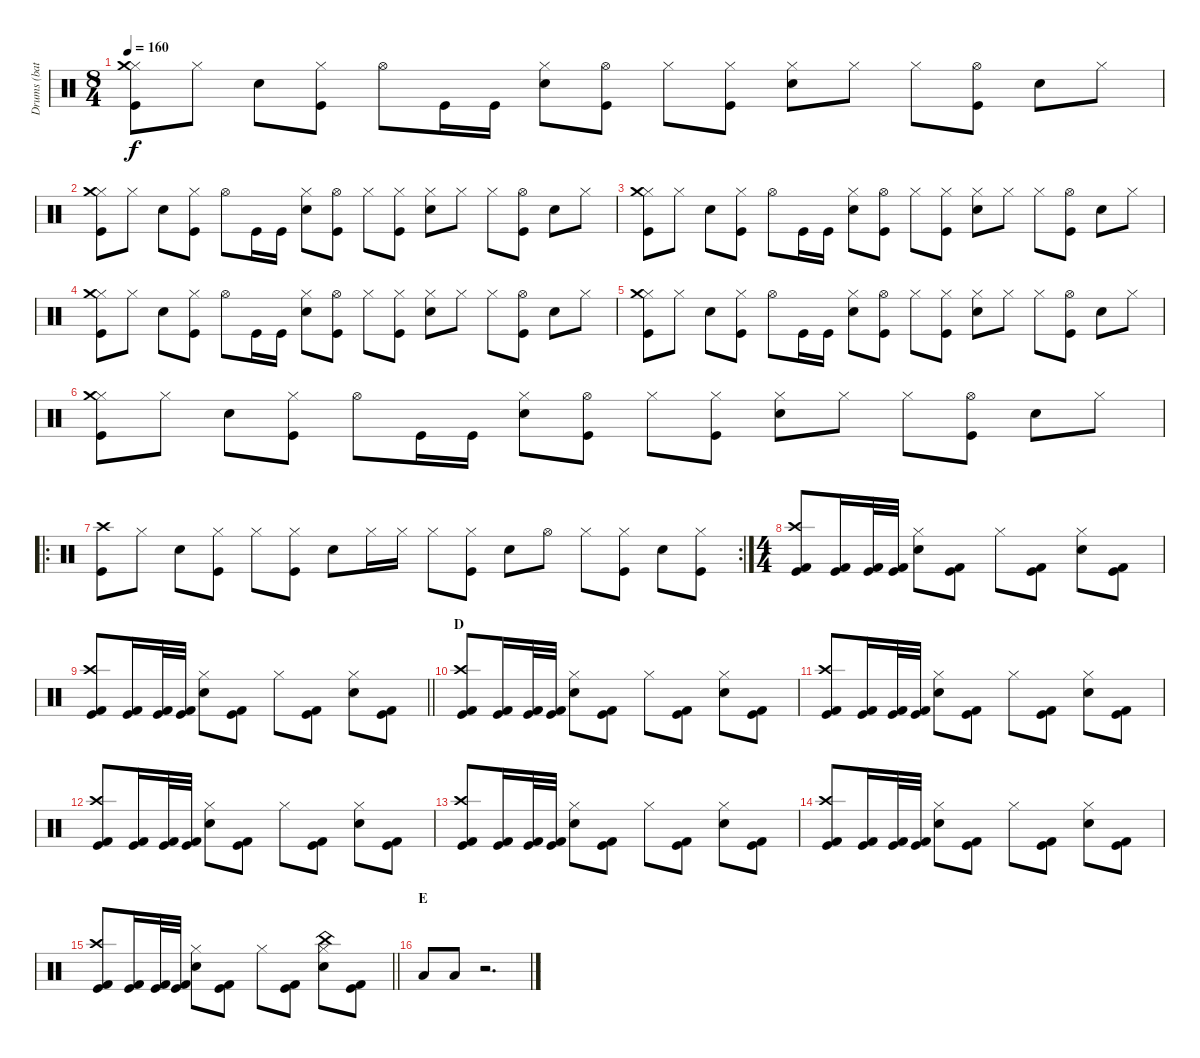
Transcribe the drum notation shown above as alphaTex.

\track ("Drums (bateria)" "Drums (bat") {instrument percussion}
\staff {score}
\articulation defaults
\ts (8 4)
\tempo 160
\clef neutral
\ks c
("Hi-Hat (closed)" "Crash medium (hit)" "Kick (hit)").8{dy f} "Hi-Hat (closed)".8 "Electric Snare (hit)".8 ("Hi-Hat (closed)" "Kick (hit)").8 "Hi-Hat (open)".8 "Kick (hit)".16 "Kick (hit)".16 ("Hi-Hat (closed)" "Electric Snare (hit)").8 ("Hi-Hat (open)" "Kick (hit)").8 "Hi-Hat (closed)".8 ("Hi-Hat (closed)" "Kick (hit)").8 ("Hi-Hat (closed)" "Electric Snare (hit)").8 "Hi-Hat (closed)".8 "Hi-Hat (closed)".8 ("Hi-Hat (open)" "Kick (hit)").8 "Electric Snare (hit)".8 "Hi-Hat (closed)".8 |
("Hi-Hat (closed)" "Crash medium (hit)" "Kick (hit)").8 "Hi-Hat (closed)".8 "Electric Snare (hit)".8 ("Hi-Hat (closed)" "Kick (hit)").8 "Hi-Hat (open)".8 "Kick (hit)".16 "Kick (hit)".16 ("Hi-Hat (closed)" "Electric Snare (hit)").8 ("Hi-Hat (open)" "Kick (hit)").8 "Hi-Hat (closed)".8 ("Hi-Hat (closed)" "Kick (hit)").8 ("Hi-Hat (closed)" "Electric Snare (hit)").8 "Hi-Hat (closed)".8 "Hi-Hat (closed)".8 ("Hi-Hat (open)" "Kick (hit)").8 "Electric Snare (hit)".8 "Hi-Hat (closed)".8 |
("Hi-Hat (closed)" "Crash medium (hit)" "Kick (hit)").8 "Hi-Hat (closed)".8 "Electric Snare (hit)".8 ("Hi-Hat (closed)" "Kick (hit)").8 "Hi-Hat (open)".8 "Kick (hit)".16 "Kick (hit)".16 ("Hi-Hat (closed)" "Electric Snare (hit)").8 ("Hi-Hat (open)" "Kick (hit)").8 "Hi-Hat (closed)".8 ("Hi-Hat (closed)" "Kick (hit)").8 ("Hi-Hat (closed)" "Electric Snare (hit)").8 "Hi-Hat (closed)".8 "Hi-Hat (closed)".8 ("Hi-Hat (open)" "Kick (hit)").8 "Electric Snare (hit)".8 "Hi-Hat (closed)".8 |
("Hi-Hat (closed)" "Crash medium (hit)" "Kick (hit)").8 "Hi-Hat (closed)".8 "Electric Snare (hit)".8 ("Hi-Hat (closed)" "Kick (hit)").8 "Hi-Hat (open)".8 "Kick (hit)".16 "Kick (hit)".16 ("Hi-Hat (closed)" "Electric Snare (hit)").8 ("Hi-Hat (open)" "Kick (hit)").8 "Hi-Hat (closed)".8 ("Hi-Hat (closed)" "Kick (hit)").8 ("Hi-Hat (closed)" "Electric Snare (hit)").8 "Hi-Hat (closed)".8 "Hi-Hat (closed)".8 ("Hi-Hat (open)" "Kick (hit)").8 "Electric Snare (hit)".8 "Hi-Hat (closed)".8 |
("Hi-Hat (closed)" "Crash medium (hit)" "Kick (hit)").8 "Hi-Hat (closed)".8 "Electric Snare (hit)".8 ("Hi-Hat (closed)" "Kick (hit)").8 "Hi-Hat (open)".8 "Kick (hit)".16 "Kick (hit)".16 ("Hi-Hat (closed)" "Electric Snare (hit)").8 ("Hi-Hat (open)" "Kick (hit)").8 "Hi-Hat (closed)".8 ("Hi-Hat (closed)" "Kick (hit)").8 ("Hi-Hat (closed)" "Electric Snare (hit)").8 "Hi-Hat (closed)".8 "Hi-Hat (closed)".8 ("Hi-Hat (open)" "Kick (hit)").8 "Electric Snare (hit)".8 "Hi-Hat (closed)".8 |
("Hi-Hat (closed)" "Crash medium (hit)" "Kick (hit)").8 "Hi-Hat (closed)".8 "Electric Snare (hit)".8 ("Hi-Hat (closed)" "Kick (hit)").8 "Hi-Hat (open)".8 "Kick (hit)".16 "Kick (hit)".16 ("Hi-Hat (closed)" "Electric Snare (hit)").8 ("Hi-Hat (open)" "Kick (hit)").8 "Hi-Hat (closed)".8 ("Hi-Hat (closed)" "Kick (hit)").8 ("Hi-Hat (closed)" "Electric Snare (hit)").8 "Hi-Hat (closed)".8 "Hi-Hat (closed)".8 ("Hi-Hat (open)" "Kick (hit)").8 "Electric Snare (hit)".8 "Hi-Hat (closed)".8 |
\ro
\rc 2
("Crash high (hit)" "Kick (hit)").8 "Hi-Hat (closed)".8 "Electric Snare (hit)".8 ("Hi-Hat (closed)" "Kick (hit)").8 "Hi-Hat (closed)".8 ("Hi-Hat (closed)" "Kick (hit)").8 "Electric Snare (hit)".8 "Hi-Hat (closed)".16 "Hi-Hat (closed)".16 "Hi-Hat (closed)".8 ("Hi-Hat (closed)" "Kick (hit)").8 "Electric Snare (hit)".8 "Hi-Hat (open)".8 "Hi-Hat (closed)".8 ("Hi-Hat (closed)" "Kick (hit)").8 "Electric Snare (hit)".8 ("Hi-Hat (closed)" "Kick (hit)").8 |
\ts (4 4)
("Crash high (hit)" "Kick (hit)" "Kick (hit) 2").8 ("Kick (hit)" "Kick (hit) 2").16 ("Kick (hit)" "Kick (hit) 2").32 ("Kick (hit)" "Kick (hit) 2").32 ("Hi-Hat (closed)" "Electric Snare (hit)").8 ("Kick (hit)" "Kick (hit) 2").8 "Hi-Hat (closed)".8 ("Kick (hit)" "Kick (hit) 2").8 ("Hi-Hat (closed)" "Electric Snare (hit)").8 ("Kick (hit)" "Kick (hit) 2").8 |
\barLineRight lightlight
("Crash high (hit)" "Kick (hit)" "Kick (hit) 2").8 ("Kick (hit)" "Kick (hit) 2").16 ("Kick (hit)" "Kick (hit) 2").32 ("Kick (hit)" "Kick (hit) 2").32 ("Hi-Hat (closed)" "Electric Snare (hit)").8 ("Kick (hit)" "Kick (hit) 2").8 "Hi-Hat (closed)".8 ("Kick (hit)" "Kick (hit) 2").8 ("Hi-Hat (closed)" "Electric Snare (hit)").8 ("Kick (hit)" "Kick (hit) 2").8 |
\section ("" "D")
("Crash high (hit)" "Kick (hit)" "Kick (hit) 2").8 ("Kick (hit)" "Kick (hit) 2").16 ("Kick (hit)" "Kick (hit) 2").32 ("Kick (hit)" "Kick (hit) 2").32 ("Hi-Hat (closed)" "Electric Snare (hit)").8 ("Kick (hit)" "Kick (hit) 2").8 "Hi-Hat (closed)".8 ("Kick (hit)" "Kick (hit) 2").8 ("Hi-Hat (closed)" "Electric Snare (hit)").8 ("Kick (hit)" "Kick (hit) 2").8 |
("Crash high (hit)" "Kick (hit)" "Kick (hit) 2").8 ("Kick (hit)" "Kick (hit) 2").16 ("Kick (hit)" "Kick (hit) 2").32 ("Kick (hit)" "Kick (hit) 2").32 ("Hi-Hat (closed)" "Electric Snare (hit)").8 ("Kick (hit)" "Kick (hit) 2").8 "Hi-Hat (closed)".8 ("Kick (hit)" "Kick (hit) 2").8 ("Hi-Hat (closed)" "Electric Snare (hit)").8 ("Kick (hit)" "Kick (hit) 2").8 |
("Crash high (hit)" "Kick (hit)" "Kick (hit) 2").8 ("Kick (hit)" "Kick (hit) 2").16 ("Kick (hit)" "Kick (hit) 2").32 ("Kick (hit)" "Kick (hit) 2").32 ("Hi-Hat (closed)" "Electric Snare (hit)").8 ("Kick (hit)" "Kick (hit) 2").8 "Hi-Hat (closed)".8 ("Kick (hit)" "Kick (hit) 2").8 ("Hi-Hat (closed)" "Electric Snare (hit)").8 ("Kick (hit)" "Kick (hit) 2").8 |
("Crash high (hit)" "Kick (hit)" "Kick (hit) 2").8 ("Kick (hit)" "Kick (hit) 2").16 ("Kick (hit)" "Kick (hit) 2").32 ("Kick (hit)" "Kick (hit) 2").32 ("Hi-Hat (closed)" "Electric Snare (hit)").8 ("Kick (hit)" "Kick (hit) 2").8 "Hi-Hat (closed)".8 ("Kick (hit)" "Kick (hit) 2").8 ("Hi-Hat (closed)" "Electric Snare (hit)").8 ("Kick (hit)" "Kick (hit) 2").8 |
("Crash high (hit)" "Kick (hit)" "Kick (hit) 2").8 ("Kick (hit)" "Kick (hit) 2").16 ("Kick (hit)" "Kick (hit) 2").32 ("Kick (hit)" "Kick (hit) 2").32 ("Hi-Hat (closed)" "Electric Snare (hit)").8 ("Kick (hit)" "Kick (hit) 2").8 "Hi-Hat (closed)".8 ("Kick (hit)" "Kick (hit) 2").8 ("Hi-Hat (closed)" "Electric Snare (hit)").8 ("Kick (hit)" "Kick (hit) 2").8 |
\barLineRight lightlight
("Crash high (hit)" "Kick (hit)" "Kick (hit) 2").8 ("Kick (hit)" "Kick (hit) 2").16 ("Kick (hit)" "Kick (hit) 2").32 ("Kick (hit)" "Kick (hit) 2").32 ("Hi-Hat (closed)" "Electric Snare (hit)").8 ("Kick (hit)" "Kick (hit) 2").8 "Hi-Hat (closed)".8 ("Kick (hit)" "Kick (hit) 2").8 ("China (hit)" "Hi-Hat (closed)" "Electric Snare (hit)").8 ("Kick (hit)" "Kick (hit) 2").8 |
\section ("" "E")
"Low Tom (hit)".8 "Low Tom (hit)".8 r.2{d}
